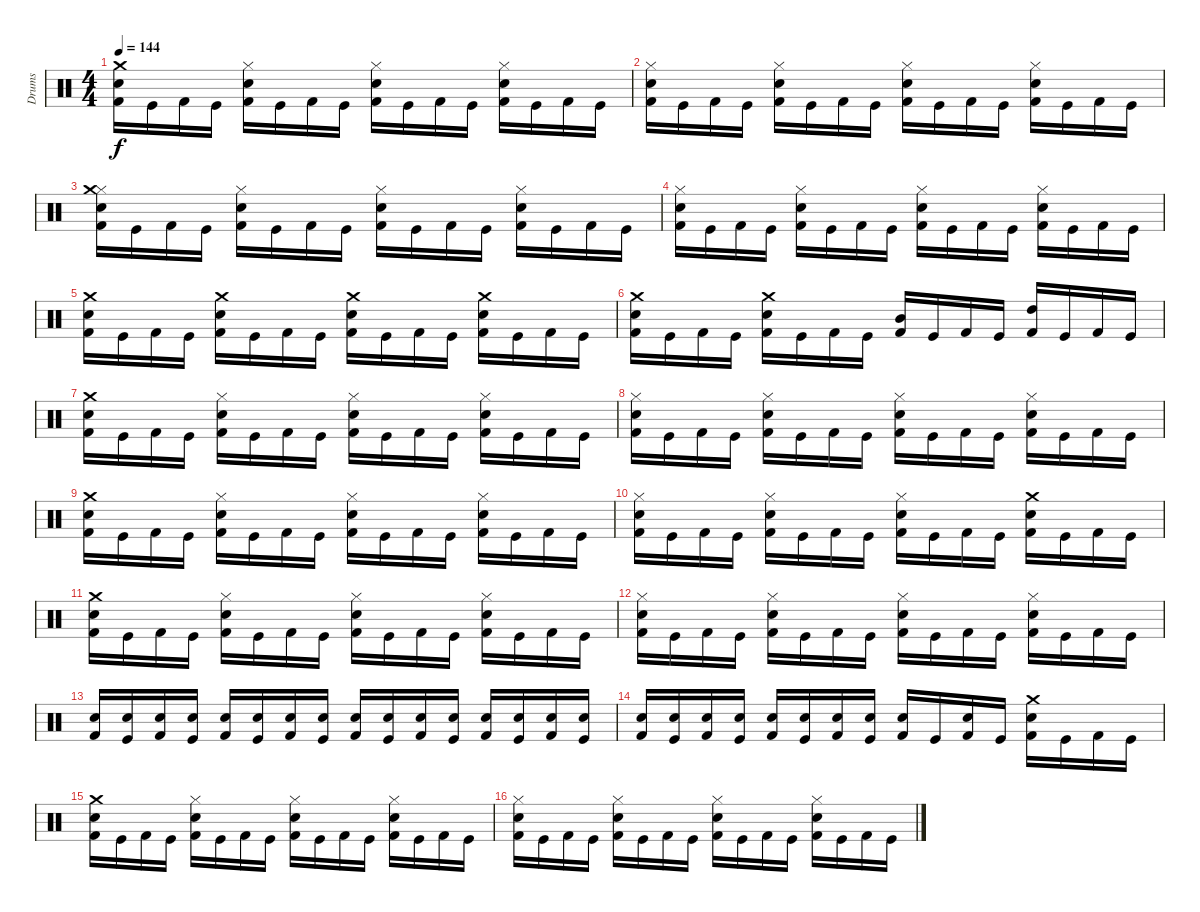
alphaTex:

\track ("Drums" "Drums") {instrument percussion}
\staff {score}
\articulation defaults
\ts (4 4)
\tempo 144
\clef neutral
\ks c
("Crash medium (hit)" "Snare (hit) 2" "Kick (hit) 2").16{dy f} "Kick (hit)".16 "Kick (hit) 2".16 "Kick (hit)".16 ("Hi-Hat (closed)" "Snare (hit) 2" "Kick (hit) 2").16 "Kick (hit)".16 "Kick (hit) 2".16 "Kick (hit)".16 ("Hi-Hat (closed)" "Snare (hit) 2" "Kick (hit) 2").16 "Kick (hit)".16 "Kick (hit) 2".16 "Kick (hit)".16 ("Hi-Hat (closed)" "Snare (hit) 2" "Kick (hit) 2").16 "Kick (hit)".16 "Kick (hit) 2".16 "Kick (hit)".16 |
("Snare (hit) 2" "Hi-Hat (closed)" "Kick (hit) 2").16 "Kick (hit)".16 "Kick (hit) 2".16 "Kick (hit)".16 ("Snare (hit) 2" "Hi-Hat (closed)" "Kick (hit) 2").16 "Kick (hit)".16 "Kick (hit) 2".16 "Kick (hit)".16 ("Snare (hit) 2" "Hi-Hat (closed)" "Kick (hit) 2").16 "Kick (hit)".16 "Kick (hit) 2".16 "Kick (hit)".16 ("Snare (hit) 2" "Hi-Hat (closed)" "Kick (hit) 2").16 "Kick (hit)".16 "Kick (hit) 2".16 "Kick (hit)".16 |
("Hi-Hat (closed)" "Snare (hit) 2" "Crash medium (hit)" "Kick (hit) 2").16 "Kick (hit)".16 "Kick (hit) 2".16 "Kick (hit)".16 ("Hi-Hat (closed)" "Snare (hit) 2" "Kick (hit) 2").16 "Kick (hit)".16 "Kick (hit) 2".16 "Kick (hit)".16 ("Hi-Hat (closed)" "Snare (hit) 2" "Kick (hit) 2").16 "Kick (hit)".16 "Kick (hit) 2".16 "Kick (hit)".16 ("Hi-Hat (closed)" "Snare (hit) 2" "Kick (hit) 2").16 "Kick (hit)".16 "Kick (hit) 2".16 "Kick (hit)".16 |
("Hi-Hat (closed)" "Snare (hit) 2" "Kick (hit) 2").16 "Kick (hit)".16 "Kick (hit) 2".16 "Kick (hit)".16 ("Hi-Hat (closed)" "Snare (hit) 2" "Kick (hit) 2").16 "Kick (hit)".16 "Kick (hit) 2".16 "Kick (hit)".16 ("Hi-Hat (closed)" "Snare (hit) 2" "Kick (hit) 2").16 "Kick (hit)".16 "Kick (hit) 2".16 "Kick (hit)".16 ("Hi-Hat (closed)" "Snare (hit) 2" "Kick (hit) 2").16 "Kick (hit)".16 "Kick (hit) 2".16 "Kick (hit)".16 |
("Snare (hit) 2" "Crash medium (hit)" "Kick (hit) 2").16 "Kick (hit)".16 "Kick (hit) 2".16 "Kick (hit)".16 ("Snare (hit) 2" "Crash medium (hit)" "Kick (hit) 2").16 "Kick (hit)".16 "Kick (hit) 2".16 "Kick (hit)".16 ("Snare (hit) 2" "Crash medium (hit)" "Kick (hit) 2").16 "Kick (hit)".16 "Kick (hit) 2".16 "Kick (hit)".16 ("Snare (hit) 2" "Crash medium (hit)" "Kick (hit) 2").16 "Kick (hit)".16 "Kick (hit) 2".16 "Kick (hit)".16 |
("Snare (hit) 2" "Crash medium (hit)" "Kick (hit) 2").16 "Kick (hit)".16 "Kick (hit) 2".16 "Kick (hit)".16 ("Snare (hit) 2" "Crash medium (hit)" "Kick (hit) 2").16 "Kick (hit)".16 "Kick (hit) 2".16 "Kick (hit)".16 ("Mid Tom (hit)" "Kick (hit) 2").16 "Kick (hit)".16 "Kick (hit) 2".16 "Kick (hit)".16 ("High Tom (hit)" "Kick (hit) 2").16 "Kick (hit)".16 "Kick (hit) 2".16 "Kick (hit)".16 |
("Crash medium (hit)" "Snare (hit) 2" "Kick (hit) 2").16 "Kick (hit)".16 "Kick (hit) 2".16 "Kick (hit)".16 ("Hi-Hat (closed)" "Snare (hit) 2" "Kick (hit) 2").16 "Kick (hit)".16 "Kick (hit) 2".16 "Kick (hit)".16 ("Hi-Hat (closed)" "Snare (hit) 2" "Kick (hit) 2").16 "Kick (hit)".16 "Kick (hit) 2".16 "Kick (hit)".16 ("Hi-Hat (closed)" "Snare (hit) 2" "Kick (hit) 2").16 "Kick (hit)".16 "Kick (hit) 2".16 "Kick (hit)".16 |
("Hi-Hat (closed)" "Snare (hit) 2" "Kick (hit) 2").16 "Kick (hit)".16 "Kick (hit) 2".16 "Kick (hit)".16 ("Hi-Hat (closed)" "Snare (hit) 2" "Kick (hit) 2").16 "Kick (hit)".16 "Kick (hit) 2".16 "Kick (hit)".16 ("Hi-Hat (closed)" "Snare (hit) 2" "Kick (hit) 2").16 "Kick (hit)".16 "Kick (hit) 2".16 "Kick (hit)".16 ("Hi-Hat (closed)" "Snare (hit) 2" "Kick (hit) 2").16 "Kick (hit)".16 "Kick (hit) 2".16 "Kick (hit)".16 |
("Snare (hit) 2" "Crash medium (hit)" "Kick (hit) 2").16 "Kick (hit)".16 "Kick (hit) 2".16 "Kick (hit)".16 ("Hi-Hat (closed)" "Snare (hit) 2" "Kick (hit) 2").16 "Kick (hit)".16 "Kick (hit) 2".16 "Kick (hit)".16 ("Hi-Hat (closed)" "Snare (hit) 2" "Kick (hit) 2").16 "Kick (hit)".16 "Kick (hit) 2".16 "Kick (hit)".16 ("Hi-Hat (closed)" "Snare (hit) 2" "Kick (hit) 2").16 "Kick (hit)".16 "Kick (hit) 2".16 "Kick (hit)".16 |
("Snare (hit) 2" "Hi-Hat (closed)" "Kick (hit) 2").16 "Kick (hit)".16 "Kick (hit) 2".16 "Kick (hit)".16 ("Snare (hit) 2" "Hi-Hat (closed)" "Kick (hit) 2").16 "Kick (hit)".16 "Kick (hit) 2".16 "Kick (hit)".16 ("Snare (hit) 2" "Hi-Hat (closed)" "Kick (hit) 2").16 "Kick (hit)".16 "Kick (hit) 2".16 "Kick (hit)".16 ("Crash medium (hit)" "Snare (hit) 2" "Kick (hit) 2").16 "Kick (hit)".16 "Kick (hit) 2".16 "Kick (hit)".16 |
("Snare (hit) 2" "Crash medium (hit)" "Kick (hit) 2").16 "Kick (hit)".16 "Kick (hit) 2".16 "Kick (hit)".16 ("Hi-Hat (closed)" "Snare (hit) 2" "Kick (hit) 2").16 "Kick (hit)".16 "Kick (hit) 2".16 "Kick (hit)".16 ("Hi-Hat (closed)" "Snare (hit) 2" "Kick (hit) 2").16 "Kick (hit)".16 "Kick (hit) 2".16 "Kick (hit)".16 ("Hi-Hat (closed)" "Snare (hit) 2" "Kick (hit) 2").16 "Kick (hit)".16 "Kick (hit) 2".16 "Kick (hit)".16 |
("Snare (hit) 2" "Hi-Hat (closed)" "Kick (hit) 2").16 "Kick (hit)".16 "Kick (hit) 2".16 "Kick (hit)".16 ("Snare (hit) 2" "Hi-Hat (closed)" "Kick (hit) 2").16 "Kick (hit)".16 "Kick (hit) 2".16 "Kick (hit)".16 ("Snare (hit) 2" "Hi-Hat (closed)" "Kick (hit) 2").16 "Kick (hit)".16 "Kick (hit) 2".16 "Kick (hit)".16 ("Snare (hit) 2" "Hi-Hat (closed)" "Kick (hit) 2").16 "Kick (hit)".16 "Kick (hit) 2".16 "Kick (hit)".16 |
("Snare (hit) 2" "Kick (hit) 2").16 ("Snare (hit) 2" "Kick (hit)").16 ("Snare (hit) 2" "Kick (hit) 2").16 ("Snare (hit) 2" "Kick (hit)").16 ("Snare (hit) 2" "Kick (hit) 2").16 ("Snare (hit) 2" "Kick (hit)").16 ("Snare (hit) 2" "Kick (hit) 2").16 ("Snare (hit) 2" "Kick (hit)").16 ("Snare (hit) 2" "Kick (hit) 2").16 ("Snare (hit) 2" "Kick (hit)").16 ("Snare (hit) 2" "Kick (hit) 2").16 ("Snare (hit) 2" "Kick (hit)").16 ("Snare (hit) 2" "Kick (hit) 2").16 ("Snare (hit) 2" "Kick (hit)").16 ("Snare (hit) 2" "Kick (hit) 2").16 ("Snare (hit) 2" "Kick (hit)").16 |
("Snare (hit) 2" "Kick (hit) 2").16 ("Snare (hit) 2" "Kick (hit)").16 ("Snare (hit) 2" "Kick (hit) 2").16 ("Snare (hit) 2" "Kick (hit)").16 ("Snare (hit) 2" "Kick (hit) 2").16 ("Snare (hit) 2" "Kick (hit)").16 ("Snare (hit) 2" "Kick (hit) 2").16 ("Snare (hit) 2" "Kick (hit)").16 ("Snare (hit) 2" "Kick (hit) 2").16 "Kick (hit)".16 ("Snare (hit) 2" "Kick (hit) 2").16 "Kick (hit)".16 ("Crash medium (hit)" "Snare (hit) 2" "Kick (hit) 2").16 "Kick (hit)".16 "Kick (hit) 2".16 "Kick (hit)".16 |
("Snare (hit) 2" "Crash medium (hit)" "Kick (hit) 2").16 "Kick (hit)".16 "Kick (hit) 2".16 "Kick (hit)".16 ("Hi-Hat (closed)" "Snare (hit) 2" "Kick (hit) 2").16 "Kick (hit)".16 "Kick (hit) 2".16 "Kick (hit)".16 ("Hi-Hat (closed)" "Snare (hit) 2" "Kick (hit) 2").16 "Kick (hit)".16 "Kick (hit) 2".16 "Kick (hit)".16 ("Hi-Hat (closed)" "Snare (hit) 2" "Kick (hit) 2").16 "Kick (hit)".16 "Kick (hit) 2".16 "Kick (hit)".16 |
("Snare (hit) 2" "Hi-Hat (closed)" "Kick (hit) 2").16 "Kick (hit)".16 "Kick (hit) 2".16 "Kick (hit)".16 ("Snare (hit) 2" "Hi-Hat (closed)" "Kick (hit) 2").16 "Kick (hit)".16 "Kick (hit) 2".16 "Kick (hit)".16 ("Snare (hit) 2" "Hi-Hat (closed)" "Kick (hit) 2").16 "Kick (hit)".16 "Kick (hit) 2".16 "Kick (hit)".16 ("Snare (hit) 2" "Hi-Hat (closed)" "Kick (hit) 2").16 "Kick (hit)".16 "Kick (hit) 2".16 "Kick (hit)".16
